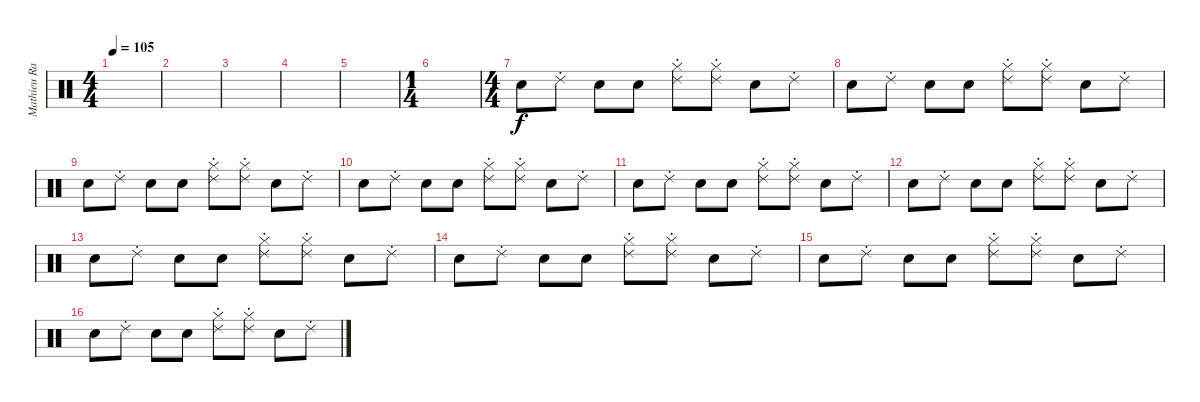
\track ("Mathieu Rabaté (batterie)" "Mathieu Ra") {instrument percussion}
\staff {score}
\articulation defaults
\ts (4 4)
\tempo 105
\clef neutral
\ks c
|
|
|
|
|
\ts (1 4)
|
\ts (4 4)
"Snare (hit) 2".8 "Ride (choke) 2".8 "Electric Snare (hit)".8 "Electric Snare (hit)".8 ("Hi-Hat (closed)" "Ride (choke) 2").8 ("Hi-Hat (closed)" "Ride (choke) 2").8 "Electric Snare (hit)".8 "Ride (choke) 2".8 |
"Snare (hit) 2".8 "Ride (choke) 2".8 "Electric Snare (hit)".8 "Electric Snare (hit)".8 ("Hi-Hat (closed)" "Ride (choke) 2").8 ("Hi-Hat (closed)" "Ride (choke) 2").8 "Electric Snare (hit)".8 "Ride (choke) 2".8 |
"Snare (hit) 2".8 "Ride (choke) 2".8 "Electric Snare (hit)".8 "Electric Snare (hit)".8 ("Hi-Hat (closed)" "Ride (choke) 2").8 ("Hi-Hat (closed)" "Ride (choke) 2").8 "Electric Snare (hit)".8 "Ride (choke) 2".8 |
"Snare (hit) 2".8 "Ride (choke) 2".8 "Electric Snare (hit)".8 "Electric Snare (hit)".8 ("Hi-Hat (closed)" "Ride (choke) 2").8 ("Hi-Hat (closed)" "Ride (choke) 2").8 "Electric Snare (hit)".8 "Ride (choke) 2".8 |
"Snare (hit) 2".8 "Ride (choke) 2".8 "Electric Snare (hit)".8 "Electric Snare (hit)".8 ("Hi-Hat (closed)" "Ride (choke) 2").8 ("Hi-Hat (closed)" "Ride (choke) 2").8 "Electric Snare (hit)".8 "Ride (choke) 2".8 |
"Snare (hit) 2".8 "Ride (choke) 2".8 "Electric Snare (hit)".8 "Electric Snare (hit)".8 ("Hi-Hat (closed)" "Ride (choke) 2").8 ("Hi-Hat (closed)" "Ride (choke) 2").8 "Electric Snare (hit)".8 "Ride (choke) 2".8 |
"Snare (hit) 2".8 "Ride (choke) 2".8 "Electric Snare (hit)".8 "Electric Snare (hit)".8 ("Hi-Hat (closed)" "Ride (choke) 2").8 ("Hi-Hat (closed)" "Ride (choke) 2").8 "Electric Snare (hit)".8 "Ride (choke) 2".8 |
"Snare (hit) 2".8 "Ride (choke) 2".8 "Electric Snare (hit)".8 "Electric Snare (hit)".8 ("Hi-Hat (closed)" "Ride (choke) 2").8 ("Hi-Hat (closed)" "Ride (choke) 2").8 "Electric Snare (hit)".8 "Ride (choke) 2".8 |
"Snare (hit) 2".8 "Ride (choke) 2".8 "Electric Snare (hit)".8 "Electric Snare (hit)".8 ("Hi-Hat (closed)" "Ride (choke) 2").8 ("Hi-Hat (closed)" "Ride (choke) 2").8 "Electric Snare (hit)".8 "Ride (choke) 2".8 |
"Snare (hit) 2".8 "Ride (choke) 2".8 "Electric Snare (hit)".8 "Electric Snare (hit)".8 ("Hi-Hat (closed)" "Ride (choke) 2").8 ("Hi-Hat (closed)" "Ride (choke) 2").8 "Electric Snare (hit)".8 "Ride (choke) 2".8
